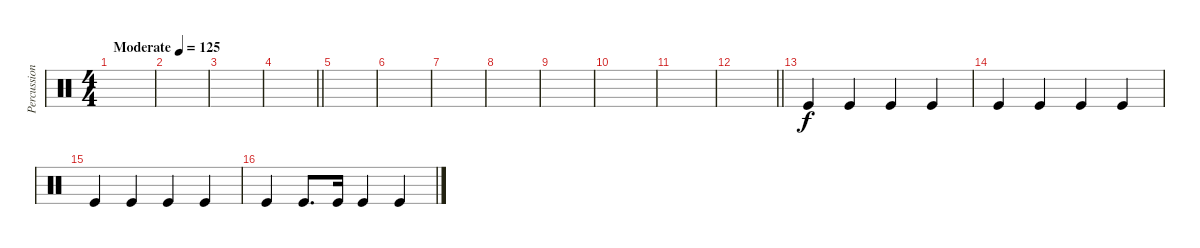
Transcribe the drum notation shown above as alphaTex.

\track ("Percussion" "Percussion") {instrument percussion}
\staff {score}
\articulation defaults
\ts (4 4)
\tempo (125 "Moderate")
\clef neutral
\ks c
|
|
|
\barLineRight lightlight
|
|
|
|
|
|
|
|
\barLineRight lightlight
|
"Kick (hit)".4 "Kick (hit)".4 "Kick (hit)".4 "Kick (hit)".4 |
"Kick (hit)".4 "Kick (hit)".4 "Kick (hit)".4 "Kick (hit)".4 |
"Kick (hit)".4 "Kick (hit)".4 "Kick (hit)".4 "Kick (hit)".4 |
"Kick (hit)".4 "Kick (hit)".8{d} "Kick (hit)".16 "Kick (hit)".4 "Kick (hit)".4
